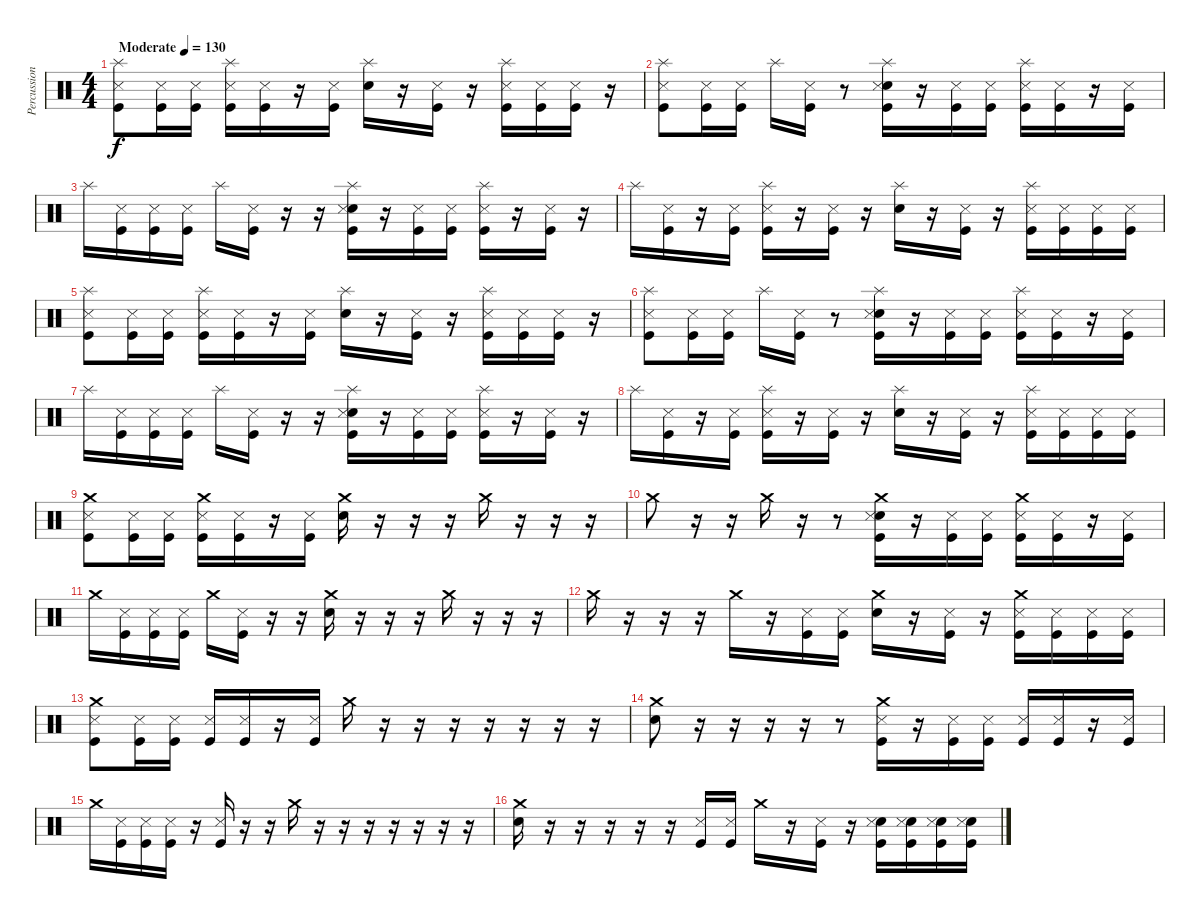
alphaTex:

\track ("Percussion" "Percussion") {instrument percussion}
\staff {score}
\articulation defaults
\ts (4 4)
\tempo (130 "Moderate")
\clef neutral
\ks c
("Splash (hit)" "Metronome (hit)" "Kick (hit)").8{dy f} ("Metronome (hit)" "Kick (hit)").16 ("Metronome (hit)" "Kick (hit)").16 ("Splash (hit)" "Metronome (hit)" "Kick (hit)").16 ("Metronome (hit)" "Kick (hit)").16 r.16 ("Metronome (hit)" "Kick (hit)").16 ("Splash (hit)" "Electric Snare (hit)").16 r.16 ("Metronome (hit)" "Kick (hit)").16 r.16 ("Splash (hit)" "Metronome (hit)" "Kick (hit)").16 ("Metronome (hit)" "Kick (hit)").16 ("Metronome (hit)" "Kick (hit)").16 r.16 |
("Splash (hit)" "Metronome (hit)" "Kick (hit)").8 ("Metronome (hit)" "Kick (hit)").16 ("Metronome (hit)" "Kick (hit)").16 "Splash (hit)".16 ("Metronome (hit)" "Kick (hit)").16 r.8 ("Splash (hit)" "Electric Snare (hit)" "Metronome (hit)" "Kick (hit)").16 r.16 ("Metronome (hit)" "Kick (hit)").16 ("Metronome (hit)" "Kick (hit)").16 ("Splash (hit)" "Metronome (hit)" "Kick (hit)").16 ("Metronome (hit)" "Kick (hit)").16 r.16 ("Metronome (hit)" "Kick (hit)").16 |
"Splash (hit)".16 ("Metronome (hit)" "Kick (hit)").16 ("Metronome (hit)" "Kick (hit)").16 ("Metronome (hit)" "Kick (hit)").16 "Splash (hit)".16 ("Metronome (hit)" "Kick (hit)").16 r.16 r.16 ("Splash (hit)" "Electric Snare (hit)" "Metronome (hit)" "Kick (hit)").16 r.16 ("Metronome (hit)" "Kick (hit)").16 ("Metronome (hit)" "Kick (hit)").16 ("Splash (hit)" "Metronome (hit)" "Kick (hit)").16 r.16 ("Metronome (hit)" "Kick (hit)").16 r.16 |
"Splash (hit)".16 ("Metronome (hit)" "Kick (hit)").16 r.16 ("Metronome (hit)" "Kick (hit)").16 ("Splash (hit)" "Metronome (hit)" "Kick (hit)").16 r.16 ("Metronome (hit)" "Kick (hit)").16 r.16 ("Splash (hit)" "Electric Snare (hit)").16 r.16 ("Metronome (hit)" "Kick (hit)").16 r.16 ("Splash (hit)" "Metronome (hit)" "Kick (hit)").16 ("Metronome (hit)" "Kick (hit)").16 ("Metronome (hit)" "Kick (hit)").16 ("Metronome (hit)" "Kick (hit)").16 |
("Splash (hit)" "Metronome (hit)" "Kick (hit)").8 ("Metronome (hit)" "Kick (hit)").16 ("Metronome (hit)" "Kick (hit)").16 ("Splash (hit)" "Metronome (hit)" "Kick (hit)").16 ("Metronome (hit)" "Kick (hit)").16 r.16 ("Metronome (hit)" "Kick (hit)").16 ("Splash (hit)" "Electric Snare (hit)").16 r.16 ("Metronome (hit)" "Kick (hit)").16 r.16 ("Splash (hit)" "Metronome (hit)" "Kick (hit)").16 ("Metronome (hit)" "Kick (hit)").16 ("Metronome (hit)" "Kick (hit)").16 r.16 |
("Splash (hit)" "Metronome (hit)" "Kick (hit)").8 ("Metronome (hit)" "Kick (hit)").16 ("Metronome (hit)" "Kick (hit)").16 "Splash (hit)".16 ("Metronome (hit)" "Kick (hit)").16 r.8 ("Splash (hit)" "Electric Snare (hit)" "Metronome (hit)" "Kick (hit)").16 r.16 ("Metronome (hit)" "Kick (hit)").16 ("Metronome (hit)" "Kick (hit)").16 ("Splash (hit)" "Metronome (hit)" "Kick (hit)").16 ("Metronome (hit)" "Kick (hit)").16 r.16 ("Metronome (hit)" "Kick (hit)").16 |
"Splash (hit)".16 ("Metronome (hit)" "Kick (hit)").16 ("Metronome (hit)" "Kick (hit)").16 ("Metronome (hit)" "Kick (hit)").16 "Splash (hit)".16 ("Metronome (hit)" "Kick (hit)").16 r.16 r.16 ("Splash (hit)" "Electric Snare (hit)" "Metronome (hit)" "Kick (hit)").16 r.16 ("Metronome (hit)" "Kick (hit)").16 ("Metronome (hit)" "Kick (hit)").16 ("Splash (hit)" "Metronome (hit)" "Kick (hit)").16 r.16 ("Metronome (hit)" "Kick (hit)").16 r.16 |
"Splash (hit)".16 ("Metronome (hit)" "Kick (hit)").16 r.16 ("Metronome (hit)" "Kick (hit)").16 ("Splash (hit)" "Metronome (hit)" "Kick (hit)").16 r.16 ("Metronome (hit)" "Kick (hit)").16 r.16 ("Splash (hit)" "Electric Snare (hit)").16 r.16 ("Metronome (hit)" "Kick (hit)").16 r.16 ("Splash (hit)" "Metronome (hit)" "Kick (hit)").16 ("Metronome (hit)" "Kick (hit)").16 ("Metronome (hit)" "Kick (hit)").16 ("Metronome (hit)" "Kick (hit)").16 |
("Crash medium (hit)" "Metronome (hit)" "Kick (hit)").8 ("Metronome (hit)" "Kick (hit)").16 ("Metronome (hit)" "Kick (hit)").16 ("Crash medium (hit)" "Metronome (hit)" "Kick (hit)").16 ("Metronome (hit)" "Kick (hit)").16 r.16 ("Metronome (hit)" "Kick (hit)").16 ("Crash medium (hit)" "Electric Snare (hit)").16 r.16 r.16 r.16 "Crash medium (hit)".16 r.16 r.16 r.16 |
"Crash medium (hit)".8 r.16 r.16 "Crash medium (hit)".16 r.16 r.8 ("Crash medium (hit)" "Electric Snare (hit)" "Metronome (hit)" "Kick (hit)").16 r.16 ("Metronome (hit)" "Kick (hit)").16 ("Metronome (hit)" "Kick (hit)").16 ("Crash medium (hit)" "Metronome (hit)" "Kick (hit)").16 ("Metronome (hit)" "Kick (hit)").16 r.16 ("Metronome (hit)" "Kick (hit)").16 |
"Crash medium (hit)".16 ("Metronome (hit)" "Kick (hit)").16 ("Metronome (hit)" "Kick (hit)").16 ("Metronome (hit)" "Kick (hit)").16 "Crash medium (hit)".16 ("Metronome (hit)" "Kick (hit)").16 r.16 r.16 ("Crash medium (hit)" "Electric Snare (hit)").16 r.16 r.16 r.16 "Crash medium (hit)".16 r.16 r.16 r.16 |
"Crash medium (hit)".16 r.16 r.16 r.16 "Crash medium (hit)".16 r.16 ("Metronome (hit)" "Kick (hit)").16 ("Metronome (hit)" "Kick (hit)").16 ("Crash medium (hit)" "Electric Snare (hit)").16 r.16 ("Metronome (hit)" "Kick (hit)").16 r.16 ("Crash medium (hit)" "Metronome (hit)" "Kick (hit)").16 ("Metronome (hit)" "Kick (hit)").16 ("Metronome (hit)" "Kick (hit)").16 ("Metronome (hit)" "Kick (hit)").16 |
("Crash medium (hit)" "Metronome (hit)" "Kick (hit)").8 ("Metronome (hit)" "Kick (hit)").16 ("Metronome (hit)" "Kick (hit)").16 ("Metronome (hit)" "Kick (hit)").16 ("Metronome (hit)" "Kick (hit)").16 r.16 ("Metronome (hit)" "Kick (hit)").16 "Crash medium (hit)".16 r.16 r.16 r.16 r.16 r.16 r.16 r.16 |
("Crash medium (hit)" "Electric Snare (hit)").8 r.16 r.16 r.16 r.16 r.8 ("Crash medium (hit)" "Metronome (hit)" "Kick (hit)").16 r.16 ("Metronome (hit)" "Kick (hit)").16 ("Metronome (hit)" "Kick (hit)").16 ("Metronome (hit)" "Kick (hit)").16 ("Metronome (hit)" "Kick (hit)").16 r.16 ("Metronome (hit)" "Kick (hit)").16 |
"Crash medium (hit)".16 ("Metronome (hit)" "Kick (hit)").16 ("Metronome (hit)" "Kick (hit)").16 ("Metronome (hit)" "Kick (hit)").16 r.16 ("Metronome (hit)" "Kick (hit)").16 r.16 r.16 "Crash medium (hit)".16 r.16 r.16 r.16 r.16 r.16 r.16 r.16 |
("Crash medium (hit)" "Electric Snare (hit)").16 r.16 r.16 r.16 r.16 r.16 ("Metronome (hit)" "Kick (hit)").16 ("Metronome (hit)" "Kick (hit)").16 "Crash medium (hit)".16 r.16 ("Metronome (hit)" "Kick (hit)").16 r.16 ("Electric Snare (hit)" "Metronome (hit)" "Kick (hit)").16 ("Electric Snare (hit)" "Metronome (hit)" "Kick (hit)").16 ("Electric Snare (hit)" "Metronome (hit)" "Kick (hit)").16 ("Electric Snare (hit)" "Metronome (hit)" "Kick (hit)").16
